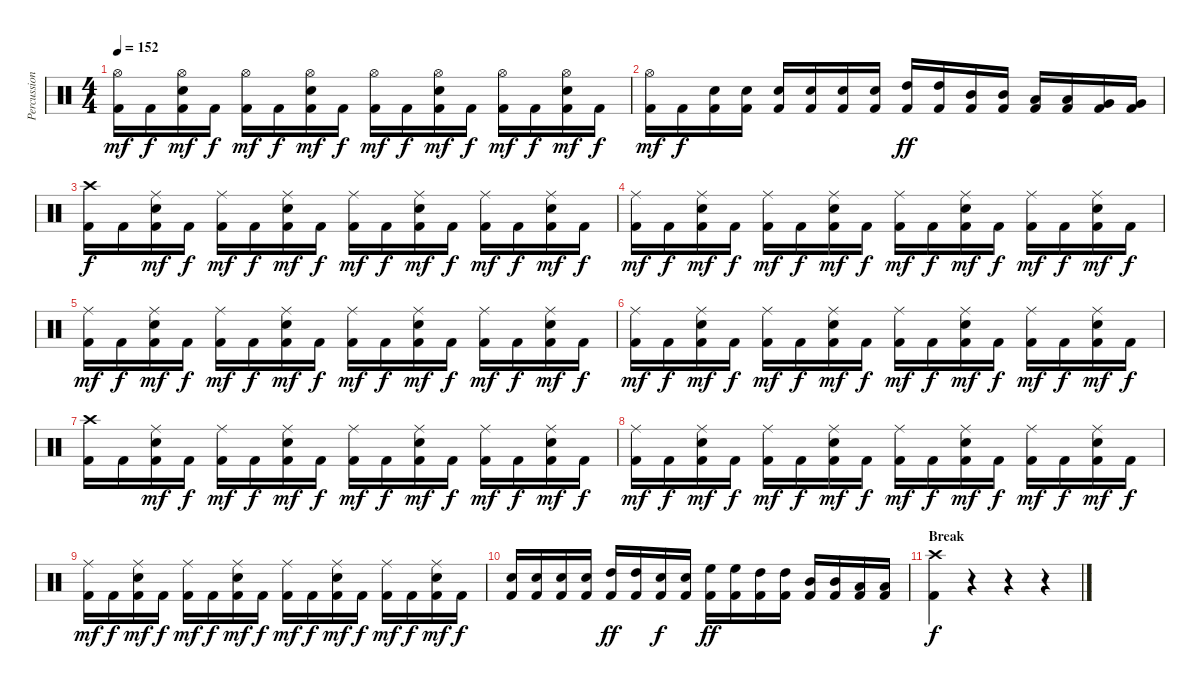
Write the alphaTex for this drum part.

\track ("Percussion" "Percussion") {instrument percussion}
\staff {score}
\articulation defaults
\ts (4 4)
\tempo 152
\clef neutral
\ks c
("Hi-Hat (open)" "Kick (hit) 2").16{dy mf} "Kick (hit) 2".16{dy f} ("Hi-Hat (open)" "Electric Snare (hit)" "Kick (hit) 2").16{dy mf} "Kick (hit) 2".16{dy f} ("Hi-Hat (open)" "Kick (hit) 2").16{dy mf} "Kick (hit) 2".16{dy f} ("Hi-Hat (open)" "Electric Snare (hit)" "Kick (hit) 2").16{dy mf} "Kick (hit) 2".16{dy f} ("Hi-Hat (open)" "Kick (hit) 2").16{dy mf} "Kick (hit) 2".16{dy f} ("Hi-Hat (open)" "Electric Snare (hit)" "Kick (hit) 2").16{dy mf} "Kick (hit) 2".16{dy f} ("Hi-Hat (open)" "Kick (hit) 2").16{dy mf} "Kick (hit) 2".16{dy f} ("Hi-Hat (open)" "Electric Snare (hit)" "Kick (hit) 2").16{dy mf} "Kick (hit) 2".16{dy f} |
("Hi-Hat (open)" "Kick (hit) 2").16{dy mf} "Kick (hit) 2".16{dy f} ("Electric Snare (hit)" "Kick (hit) 2").16 ("Electric Snare (hit)" "Kick (hit) 2").16 ("Electric Snare (hit)" "Kick (hit) 2").16 ("Electric Snare (hit)" "Kick (hit) 2").16 ("Electric Snare (hit)" "Kick (hit) 2").16 ("Electric Snare (hit)" "Kick (hit) 2").16 ("High Tom (hit)" "Kick (hit) 2").16{dy ff} ("High Tom (hit)" "Kick (hit) 2").16 ("Mid Tom (hit)" "Kick (hit) 2").16 ("Mid Tom (hit)" "Kick (hit) 2").16 ("Low Tom (hit)" "Kick (hit) 2").16 ("Low Tom (hit)" "Kick (hit) 2").16 ("Very Low Tom (hit)" "Kick (hit) 2").16 ("Very Low Tom (hit)" "Kick (hit) 2").16 |
("Crash high (hit)" "Kick (hit) 2").16{dy f} "Kick (hit) 2".16 ("Ride (middle)" "Electric Snare (hit)" "Kick (hit) 2").16{dy mf} "Kick (hit) 2".16{dy f} ("Ride (middle)" "Kick (hit) 2").16{dy mf} "Kick (hit) 2".16{dy f} ("Ride (middle)" "Electric Snare (hit)" "Kick (hit) 2").16{dy mf} "Kick (hit) 2".16{dy f} ("Ride (middle)" "Kick (hit) 2").16{dy mf} "Kick (hit) 2".16{dy f} ("Ride (middle)" "Electric Snare (hit)" "Kick (hit) 2").16{dy mf} "Kick (hit) 2".16{dy f} ("Ride (middle)" "Kick (hit) 2").16{dy mf} "Kick (hit) 2".16{dy f} ("Ride (middle)" "Electric Snare (hit)" "Kick (hit) 2").16{dy mf} "Kick (hit) 2".16{dy f} |
("Ride (middle)" "Kick (hit) 2").16{dy mf} "Kick (hit) 2".16{dy f} ("Ride (middle)" "Electric Snare (hit)" "Kick (hit) 2").16{dy mf} "Kick (hit) 2".16{dy f} ("Ride (middle)" "Kick (hit) 2").16{dy mf} "Kick (hit) 2".16{dy f} ("Ride (middle)" "Electric Snare (hit)" "Kick (hit) 2").16{dy mf} "Kick (hit) 2".16{dy f} ("Ride (middle)" "Kick (hit) 2").16{dy mf} "Kick (hit) 2".16{dy f} ("Ride (middle)" "Electric Snare (hit)" "Kick (hit) 2").16{dy mf} "Kick (hit) 2".16{dy f} ("Ride (middle)" "Kick (hit) 2").16{dy mf} "Kick (hit) 2".16{dy f} ("Ride (middle)" "Electric Snare (hit)" "Kick (hit) 2").16{dy mf} "Kick (hit) 2".16{dy f} |
("Ride (middle)" "Kick (hit) 2").16{dy mf} "Kick (hit) 2".16{dy f} ("Ride (middle)" "Electric Snare (hit)" "Kick (hit) 2").16{dy mf} "Kick (hit) 2".16{dy f} ("Ride (middle)" "Kick (hit) 2").16{dy mf} "Kick (hit) 2".16{dy f} ("Ride (middle)" "Electric Snare (hit)" "Kick (hit) 2").16{dy mf} "Kick (hit) 2".16{dy f} ("Ride (middle)" "Kick (hit) 2").16{dy mf} "Kick (hit) 2".16{dy f} ("Ride (middle)" "Electric Snare (hit)" "Kick (hit) 2").16{dy mf} "Kick (hit) 2".16{dy f} ("Ride (middle)" "Kick (hit) 2").16{dy mf} "Kick (hit) 2".16{dy f} ("Ride (middle)" "Electric Snare (hit)" "Kick (hit) 2").16{dy mf} "Kick (hit) 2".16{dy f} |
("Ride (middle)" "Kick (hit) 2").16{dy mf} "Kick (hit) 2".16{dy f} ("Ride (middle)" "Electric Snare (hit)" "Kick (hit) 2").16{dy mf} "Kick (hit) 2".16{dy f} ("Ride (middle)" "Kick (hit) 2").16{dy mf} "Kick (hit) 2".16{dy f} ("Ride (middle)" "Electric Snare (hit)" "Kick (hit) 2").16{dy mf} "Kick (hit) 2".16{dy f} ("Ride (middle)" "Kick (hit) 2").16{dy mf} "Kick (hit) 2".16{dy f} ("Ride (middle)" "Electric Snare (hit)" "Kick (hit) 2").16{dy mf} "Kick (hit) 2".16{dy f} ("Ride (middle)" "Kick (hit) 2").16{dy mf} "Kick (hit) 2".16{dy f} ("Ride (middle)" "Electric Snare (hit)" "Kick (hit) 2").16{dy mf} "Kick (hit) 2".16{dy f} |
("Crash high (hit)" "Kick (hit) 2").16 "Kick (hit) 2".16 ("Ride (middle)" "Electric Snare (hit)" "Kick (hit) 2").16{dy mf} "Kick (hit) 2".16{dy f} ("Ride (middle)" "Kick (hit) 2").16{dy mf} "Kick (hit) 2".16{dy f} ("Ride (middle)" "Electric Snare (hit)" "Kick (hit) 2").16{dy mf} "Kick (hit) 2".16{dy f} ("Ride (middle)" "Kick (hit) 2").16{dy mf} "Kick (hit) 2".16{dy f} ("Ride (middle)" "Electric Snare (hit)" "Kick (hit) 2").16{dy mf} "Kick (hit) 2".16{dy f} ("Ride (middle)" "Kick (hit) 2").16{dy mf} "Kick (hit) 2".16{dy f} ("Ride (middle)" "Electric Snare (hit)" "Kick (hit) 2").16{dy mf} "Kick (hit) 2".16{dy f} |
("Ride (middle)" "Kick (hit) 2").16{dy mf} "Kick (hit) 2".16{dy f} ("Ride (middle)" "Electric Snare (hit)" "Kick (hit) 2").16{dy mf} "Kick (hit) 2".16{dy f} ("Ride (middle)" "Kick (hit) 2").16{dy mf} "Kick (hit) 2".16{dy f} ("Ride (middle)" "Electric Snare (hit)" "Kick (hit) 2").16{dy mf} "Kick (hit) 2".16{dy f} ("Ride (middle)" "Kick (hit) 2").16{dy mf} "Kick (hit) 2".16{dy f} ("Ride (middle)" "Electric Snare (hit)" "Kick (hit) 2").16{dy mf} "Kick (hit) 2".16{dy f} ("Ride (middle)" "Kick (hit) 2").16{dy mf} "Kick (hit) 2".16{dy f} ("Ride (middle)" "Electric Snare (hit)" "Kick (hit) 2").16{dy mf} "Kick (hit) 2".16{dy f} |
("Ride (middle)" "Kick (hit) 2").16{dy mf} "Kick (hit) 2".16{dy f} ("Ride (middle)" "Electric Snare (hit)" "Kick (hit) 2").16{dy mf} "Kick (hit) 2".16{dy f} ("Ride (middle)" "Kick (hit) 2").16{dy mf} "Kick (hit) 2".16{dy f} ("Ride (middle)" "Electric Snare (hit)" "Kick (hit) 2").16{dy mf} "Kick (hit) 2".16{dy f} ("Ride (middle)" "Kick (hit) 2").16{dy mf} "Kick (hit) 2".16{dy f} ("Ride (middle)" "Electric Snare (hit)" "Kick (hit) 2").16{dy mf} "Kick (hit) 2".16{dy f} ("Ride (middle)" "Kick (hit) 2").16{dy mf} "Kick (hit) 2".16{dy f} ("Ride (middle)" "Electric Snare (hit)" "Kick (hit) 2").16{dy mf} "Kick (hit) 2".16{dy f} |
("Electric Snare (hit)" "Kick (hit) 2").16 ("Electric Snare (hit)" "Kick (hit) 2").16 ("Electric Snare (hit)" "Kick (hit) 2").16 ("Electric Snare (hit)" "Kick (hit) 2").16 ("High Tom (hit)" "Kick (hit) 2").16{dy ff} ("High Tom (hit)" "Kick (hit) 2").16 ("Electric Snare (hit)" "Kick (hit) 2").16{dy f} ("Electric Snare (hit)" "Kick (hit) 2").16 ("High Floor Tom (hit)" "Kick (hit) 2").16{dy ff} ("High Floor Tom (hit)" "Kick (hit) 2").16 ("High Tom (hit)" "Kick (hit) 2").16 ("High Tom (hit)" "Kick (hit) 2").16 ("Mid Tom (hit)" "Kick (hit) 2").16 ("Mid Tom (hit)" "Kick (hit) 2").16 ("Low Tom (hit)" "Kick (hit) 2").16 ("Low Tom (hit)" "Kick (hit) 2").16 |
\section ("" "Break")
("Crash high (hit)" "Kick (hit) 2").4{dy f} r.4 r.4 r.4
